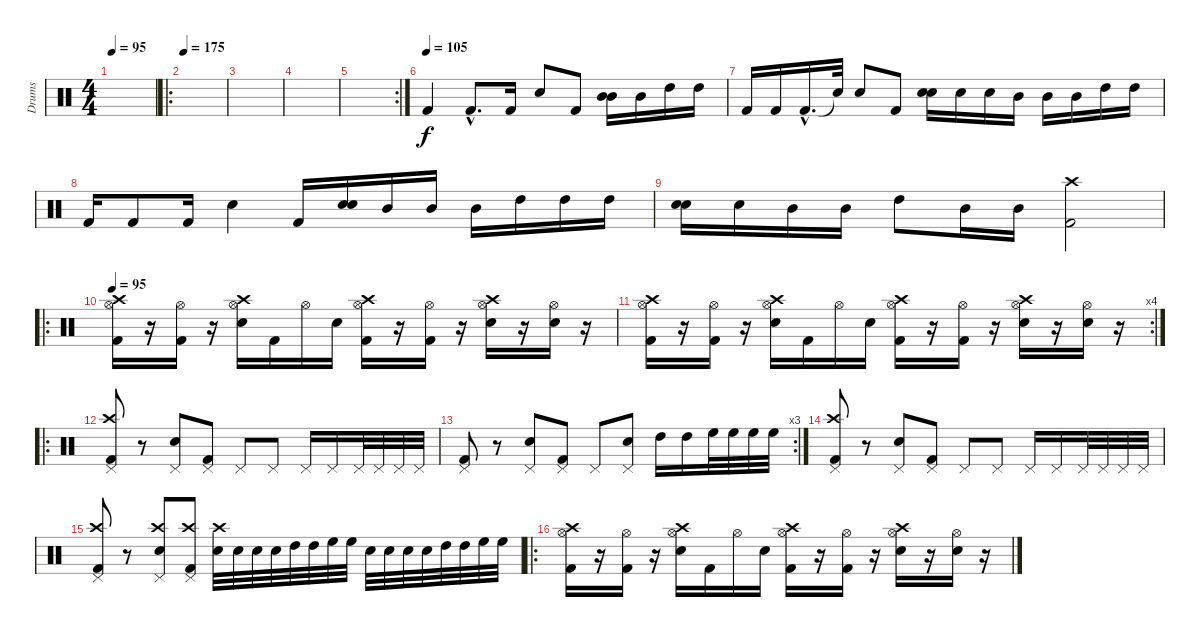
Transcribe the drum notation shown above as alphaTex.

\track ("Drums" "Drums") {instrument percussion}
\staff {score}
\articulation defaults
\ts (4 4)
\tempo 95
\tempo 175
\tempo 95
\clef neutral
\ks c
|
\ro
\tempo 175
|
|
|
\rc 2
|
\tempo (105)
"Kick (hit) 2".4 "Kick (hit) 2"{hac}.8{d} "Kick (hit) 2".16 "Electric Snare (hit)".8 "Kick (hit) 2".8 ("Mid Tom (hit)" "Mid Tom (hit)").16{bd 240} "Mid Tom (hit)".16 "High Tom (hit)".16 "High Tom (hit)".16 |
"Kick (hit) 2".16 "Kick (hit) 2".16 "Kick (hit) 2"{hac}.16{d} "Snare (hit)"{t}.32 "Electric Snare (hit)".8 "Kick (hit) 2".8 ("Electric Snare (hit)" "Electric Snare (hit)").16 "Electric Snare (hit)".16 "Electric Snare (hit)".16 "Mid Tom (hit)".16 "Mid Tom (hit)".16 "Mid Tom (hit)".16 "High Tom (hit)".16 "High Tom (hit)".16 |
"Kick (hit) 2".16 "Kick (hit) 2".8 "Kick (hit) 2".16 "Electric Snare (hit)".4 "Kick (hit) 2".16 ("Electric Snare (hit)" "Electric Snare (hit)").16{bd 240} "Mid Tom (hit)".16 "Mid Tom (hit)".16 "Mid Tom (hit)".16 "High Tom (hit)".16 "High Tom (hit)".16 "High Tom (hit)".16 |
("Electric Snare (hit)" "Electric Snare (hit)").16{bd 240} "Electric Snare (hit)".16 "Mid Tom (hit)".16 "Mid Tom (hit)".16 "High Tom (hit)".8 "Mid Tom (hit)".16 "Mid Tom (hit)".16 ("Crash high (hit)" "Kick (hit) 2").2 |
\ro
\tempo 95
("Kick (hit) 2" "Hi-Hat (open)" "Crash high (hit)").16 r.16 ("Kick (hit) 2" "Hi-Hat (open)").16 r.16 ("Electric Snare (hit)" "Hi-Hat (open)" "Crash high (hit)").16 "Kick (hit) 2".16 "Hi-Hat (open)".16 "Electric Snare (hit)".16 ("Kick (hit) 2" "Hi-Hat (open)" "Crash high (hit)").16 r.16 ("Kick (hit) 2" "Hi-Hat (open)").16 r.16 ("Electric Snare (hit)" "Hi-Hat (open)" "Crash high (hit)").16 r.16 ("Electric Snare (hit)" "Hi-Hat (open)").16 r.16 |
\rc 4
("Kick (hit) 2" "Hi-Hat (open)" "Crash high (hit)").16 r.16 ("Kick (hit) 2" "Hi-Hat (open)").16 r.16 ("Electric Snare (hit)" "Hi-Hat (open)" "Crash high (hit)").16 "Kick (hit) 2".16 "Hi-Hat (open)".16 "Electric Snare (hit)".16 ("Kick (hit) 2" "Hi-Hat (open)" "Crash high (hit)").16 r.16 ("Kick (hit) 2" "Hi-Hat (open)").16 r.16 ("Electric Snare (hit)" "Hi-Hat (open)" "Crash high (hit)").16 r.16 ("Electric Snare (hit)" "Hi-Hat (open)").16 r.16 |
\ro
("Kick (hit) 2" "Pedal Hi-Hat (hit)" "Crash high (hit)").8 r.8 ("Electric Snare (hit)" "Pedal Hi-Hat (hit)").8 ("Kick (hit) 2" "Pedal Hi-Hat (hit)").8 "Pedal Hi-Hat (hit)".8 "Pedal Hi-Hat (hit)".8 "Pedal Hi-Hat (hit)".16 "Pedal Hi-Hat (hit)".16 "Pedal Hi-Hat (hit)".32 "Pedal Hi-Hat (hit)".32 "Pedal Hi-Hat (hit)".32 "Pedal Hi-Hat (hit)".32 |
\rc 3
("Kick (hit) 2" "Pedal Hi-Hat (hit)").8 r.8 ("Electric Snare (hit)" "Pedal Hi-Hat (hit)").8 ("Kick (hit) 2" "Pedal Hi-Hat (hit)").8 "Pedal Hi-Hat (hit)".8 ("Electric Snare (hit)" "Pedal Hi-Hat (hit)").8 "High Tom (hit)".16 "High Tom (hit)".16 "High Floor Tom (hit)".32 "High Floor Tom (hit)".32 "High Floor Tom (hit)".32 "High Floor Tom (hit)".32 |
("Kick (hit) 2" "Pedal Hi-Hat (hit)" "Crash high (hit)").8 r.8 ("Electric Snare (hit)" "Pedal Hi-Hat (hit)").8 ("Kick (hit) 2" "Pedal Hi-Hat (hit)").8 "Pedal Hi-Hat (hit)".8 "Pedal Hi-Hat (hit)".8 "Pedal Hi-Hat (hit)".16 "Pedal Hi-Hat (hit)".16 "Pedal Hi-Hat (hit)".32 "Pedal Hi-Hat (hit)".32 "Pedal Hi-Hat (hit)".32 "Pedal Hi-Hat (hit)".32 |
("Kick (hit) 2" "Pedal Hi-Hat (hit)" "Crash high (hit)").8 r.8 ("Electric Snare (hit)" "Pedal Hi-Hat (hit)" "Crash high (hit)").8 ("Kick (hit) 2" "Pedal Hi-Hat (hit)" "Crash high (hit)").8 ("Electric Snare (hit)" "Crash high (hit)").32 "Electric Snare (hit)".32 "Electric Snare (hit)".32 "Electric Snare (hit)".32 "High Tom (hit)".32 "High Tom (hit)".32 "High Floor Tom (hit)".32 "High Floor Tom (hit)".32 "Electric Snare (hit)".32 "Electric Snare (hit)".32 "Electric Snare (hit)".32 "Electric Snare (hit)".32 "High Tom (hit)".32 "High Tom (hit)".32 "High Floor Tom (hit)".32 "High Floor Tom (hit)".32 |
\ro
("Kick (hit) 2" "Hi-Hat (open)" "Crash high (hit)").16 r.16 ("Kick (hit) 2" "Hi-Hat (open)").16 r.16 ("Electric Snare (hit)" "Hi-Hat (open)" "Crash high (hit)").16 "Kick (hit) 2".16 "Hi-Hat (open)".16 "Electric Snare (hit)".16 ("Kick (hit) 2" "Hi-Hat (open)" "Crash high (hit)").16 r.16 ("Kick (hit) 2" "Hi-Hat (open)").16 r.16 ("Electric Snare (hit)" "Hi-Hat (open)" "Crash high (hit)").16 r.16 ("Electric Snare (hit)" "Hi-Hat (open)").16 r.16
